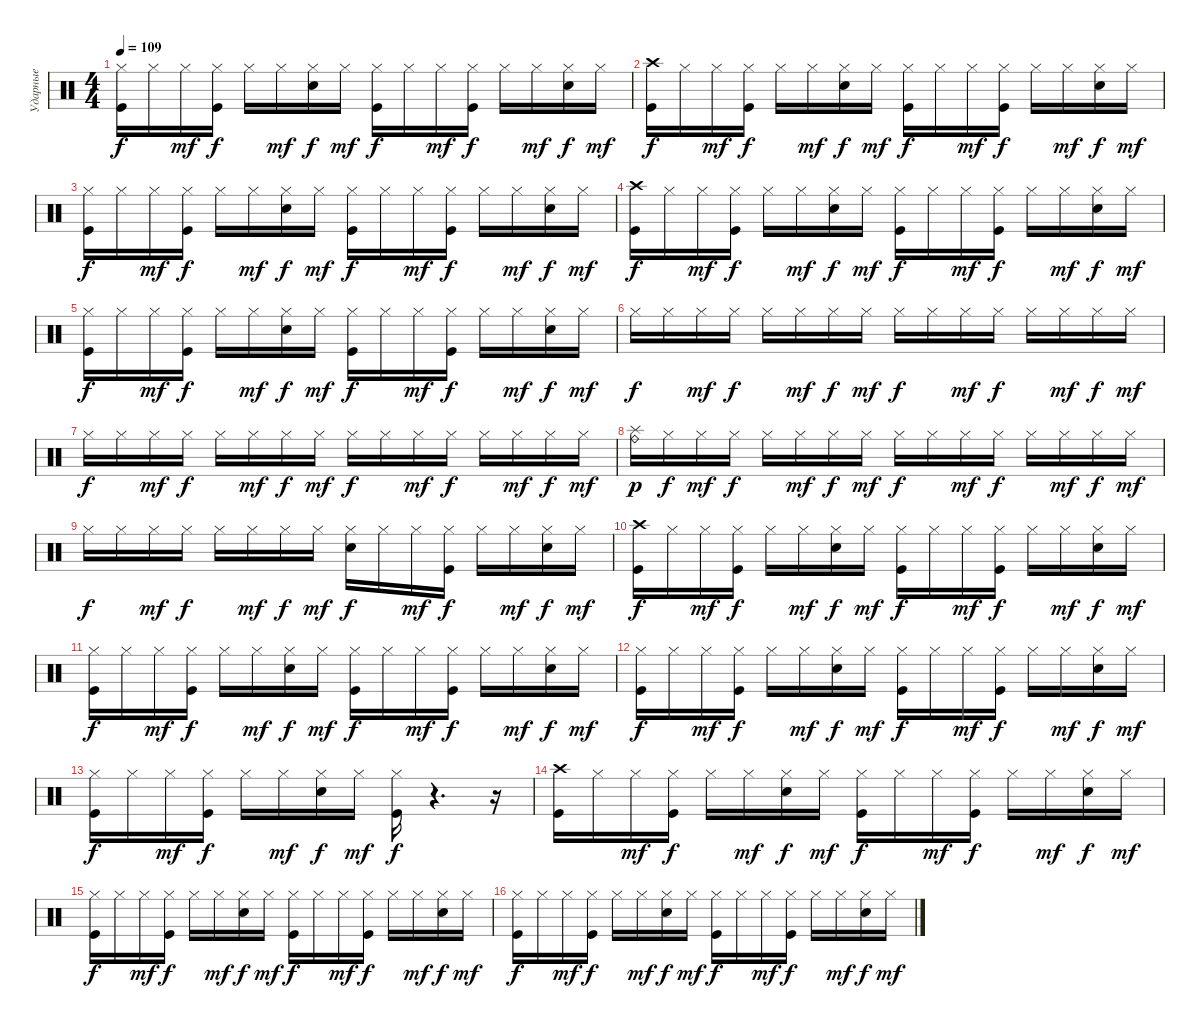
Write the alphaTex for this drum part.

\track ("Ударные" "Ударные") {instrument percussion}
\staff {score}
\articulation defaults
\ts (4 4)
\tempo 109
\clef neutral
\ks c
("Kick (hit)" "Hi-Hat (closed)").16{dy f} "Hi-Hat (closed)".16 "Hi-Hat (closed)".16{dy mf} ("Hi-Hat (closed)" "Kick (hit)").16{dy f} "Hi-Hat (closed)".16 "Hi-Hat (closed)".16{dy mf} ("Electric Snare (hit)" "Hi-Hat (closed)").16{dy f} "Hi-Hat (closed)".16{dy mf} ("Hi-Hat (closed)" "Kick (hit)").16{dy f} "Hi-Hat (closed)".16 "Hi-Hat (closed)".16{dy mf} ("Kick (hit)" "Hi-Hat (closed)").16{dy f} "Hi-Hat (closed)".16 "Hi-Hat (closed)".16{dy mf} ("Electric Snare (hit)" "Hi-Hat (closed)").16{dy f} "Hi-Hat (closed)".16{dy mf} |
("Crash high (hit)" "Kick (hit)").16{dy f} "Hi-Hat (closed)".16 "Hi-Hat (closed)".16{dy mf} ("Kick (hit)" "Hi-Hat (closed)").16{dy f} "Hi-Hat (closed)".16 "Hi-Hat (closed)".16{dy mf} ("Hi-Hat (closed)" "Electric Snare (hit)").16{dy f} "Hi-Hat (closed)".16{dy mf} ("Hi-Hat (closed)" "Kick (hit)").16{dy f} "Hi-Hat (closed)".16 "Hi-Hat (closed)".16{dy mf} ("Hi-Hat (closed)" "Kick (hit)").16{dy f} "Hi-Hat (closed)".16 "Hi-Hat (closed)".16{dy mf} ("Electric Snare (hit)" "Hi-Hat (closed)").16{dy f} "Hi-Hat (closed)".16{dy mf} |
("Hi-Hat (closed)" "Kick (hit)").16{dy f} "Hi-Hat (closed)".16 "Hi-Hat (closed)".16{dy mf} ("Kick (hit)" "Hi-Hat (closed)").16{dy f} "Hi-Hat (closed)".16 "Hi-Hat (closed)".16{dy mf} ("Electric Snare (hit)" "Hi-Hat (closed)").16{dy f} "Hi-Hat (closed)".16{dy mf} ("Kick (hit)" "Hi-Hat (closed)").16{dy f} "Hi-Hat (closed)".16 "Hi-Hat (closed)".16{dy mf} ("Hi-Hat (closed)" "Kick (hit)").16{dy f} "Hi-Hat (closed)".16 "Hi-Hat (closed)".16{dy mf} ("Electric Snare (hit)" "Hi-Hat (closed)").16{dy f} "Hi-Hat (closed)".16{dy mf} |
("Crash high (hit)" "Kick (hit)").16{dy f} "Hi-Hat (closed)".16 "Hi-Hat (closed)".16{dy mf} ("Hi-Hat (closed)" "Kick (hit)").16{dy f} "Hi-Hat (closed)".16 "Hi-Hat (closed)".16{dy mf} ("Electric Snare (hit)" "Hi-Hat (closed)").16{dy f} "Hi-Hat (closed)".16{dy mf} ("Kick (hit)" "Hi-Hat (closed)").16{dy f} "Hi-Hat (closed)".16 "Hi-Hat (closed)".16{dy mf} ("Hi-Hat (closed)" "Kick (hit)").16{dy f} "Hi-Hat (closed)".16 "Hi-Hat (closed)".16{dy mf} ("Electric Snare (hit)" "Hi-Hat (closed)").16{dy f} "Hi-Hat (closed)".16{dy mf} |
("Hi-Hat (closed)" "Kick (hit)").16{dy f} "Hi-Hat (closed)".16 "Hi-Hat (closed)".16{dy mf} ("Hi-Hat (closed)" "Kick (hit)").16{dy f} "Hi-Hat (closed)".16 "Hi-Hat (closed)".16{dy mf} ("Hi-Hat (closed)" "Electric Snare (hit)").16{dy f} "Hi-Hat (closed)".16{dy mf} ("Kick (hit)" "Hi-Hat (closed)").16{dy f} "Hi-Hat (closed)".16 "Hi-Hat (closed)".16{dy mf} ("Hi-Hat (closed)" "Kick (hit)").16{dy f} "Hi-Hat (closed)".16 "Hi-Hat (closed)".16{dy mf} ("Hi-Hat (closed)" "Electric Snare (hit)").16{dy f} "Hi-Hat (closed)".16{dy mf} |
"Hi-Hat (closed)".16{dy f} "Hi-Hat (closed)".16 "Hi-Hat (closed)".16{dy mf} "Hi-Hat (closed)".16{dy f} "Hi-Hat (closed)".16 "Hi-Hat (closed)".16{dy mf} "Hi-Hat (closed)".16{dy f} "Hi-Hat (closed)".16{dy mf} "Hi-Hat (closed)".16{dy f} "Hi-Hat (closed)".16 "Hi-Hat (closed)".16{dy mf} "Hi-Hat (closed)".16{dy f} "Hi-Hat (closed)".16 "Hi-Hat (closed)".16{dy mf} "Hi-Hat (closed)".16{dy f} "Hi-Hat (closed)".16{dy mf} |
"Hi-Hat (closed)".16{dy f} "Hi-Hat (closed)".16 "Hi-Hat (closed)".16{dy mf} "Hi-Hat (closed)".16{dy f} "Hi-Hat (closed)".16 "Hi-Hat (closed)".16{dy mf} "Hi-Hat (closed)".16{dy f} "Hi-Hat (closed)".16{dy mf} "Hi-Hat (closed)".16{dy f} "Hi-Hat (closed)".16 "Hi-Hat (closed)".16{dy mf} "Hi-Hat (closed)".16{dy f} "Hi-Hat (closed)".16 "Hi-Hat (closed)".16{dy mf} "Hi-Hat (closed)".16{dy f} "Hi-Hat (closed)".16{dy mf} |
("Ride (bell)" "Splash (hit)").16{dy p} "Hi-Hat (closed)".16{dy f} "Hi-Hat (closed)".16{dy mf} "Hi-Hat (closed)".16{dy f} "Hi-Hat (closed)".16 "Hi-Hat (closed)".16{dy mf} "Hi-Hat (closed)".16{dy f} "Hi-Hat (closed)".16{dy mf} "Hi-Hat (closed)".16{dy f} "Hi-Hat (closed)".16 "Hi-Hat (closed)".16{dy mf} "Hi-Hat (closed)".16{dy f} "Hi-Hat (closed)".16 "Hi-Hat (closed)".16{dy mf} "Hi-Hat (closed)".16{dy f} "Hi-Hat (closed)".16{dy mf} |
"Hi-Hat (closed)".16{dy f} "Hi-Hat (closed)".16 "Hi-Hat (closed)".16{dy mf} "Hi-Hat (closed)".16{dy f} "Hi-Hat (closed)".16 "Hi-Hat (closed)".16{dy mf} "Hi-Hat (closed)".16{dy f} "Hi-Hat (closed)".16{dy mf} ("Hi-Hat (closed)" "Electric Snare (hit)").16{dy f} "Hi-Hat (closed)".16 "Hi-Hat (closed)".16{dy mf} ("Kick (hit)" "Hi-Hat (closed)").16{dy f} "Hi-Hat (closed)".16 "Hi-Hat (closed)".16{dy mf} ("Hi-Hat (closed)" "Electric Snare (hit)").16{dy f} "Hi-Hat (closed)".16{dy mf} |
("Kick (hit)" "Crash high (hit)").16{dy f} "Hi-Hat (closed)".16 "Hi-Hat (closed)".16{dy mf} ("Hi-Hat (closed)" "Kick (hit)").16{dy f} "Hi-Hat (closed)".16 "Hi-Hat (closed)".16{dy mf} ("Electric Snare (hit)" "Hi-Hat (closed)").16{dy f} "Hi-Hat (closed)".16{dy mf} ("Hi-Hat (closed)" "Kick (hit)").16{dy f} "Hi-Hat (closed)".16 "Hi-Hat (closed)".16{dy mf} ("Hi-Hat (closed)" "Kick (hit)").16{dy f} "Hi-Hat (closed)".16 "Hi-Hat (closed)".16{dy mf} ("Electric Snare (hit)" "Hi-Hat (closed)").16{dy f} "Hi-Hat (closed)".16{dy mf} |
("Hi-Hat (closed)" "Kick (hit)").16{dy f} "Hi-Hat (closed)".16 "Hi-Hat (closed)".16{dy mf} ("Hi-Hat (closed)" "Kick (hit)").16{dy f} "Hi-Hat (closed)".16 "Hi-Hat (closed)".16{dy mf} ("Hi-Hat (closed)" "Electric Snare (hit)").16{dy f} "Hi-Hat (closed)".16{dy mf} ("Kick (hit)" "Hi-Hat (closed)").16{dy f} "Hi-Hat (closed)".16 "Hi-Hat (closed)".16{dy mf} ("Hi-Hat (closed)" "Kick (hit)").16{dy f} "Hi-Hat (closed)".16 "Hi-Hat (closed)".16{dy mf} ("Hi-Hat (closed)" "Electric Snare (hit)").16{dy f} "Hi-Hat (closed)".16{dy mf} |
("Kick (hit)" "Hi-Hat (closed)").16{dy f} "Hi-Hat (closed)".16 "Hi-Hat (closed)".16{dy mf} ("Hi-Hat (closed)" "Kick (hit)").16{dy f} "Hi-Hat (closed)".16 "Hi-Hat (closed)".16{dy mf} ("Electric Snare (hit)" "Hi-Hat (closed)").16{dy f} "Hi-Hat (closed)".16{dy mf} ("Hi-Hat (closed)" "Kick (hit)").16{dy f} "Hi-Hat (closed)".16 "Hi-Hat (closed)".16{dy mf} ("Hi-Hat (closed)" "Kick (hit)").16{dy f} "Hi-Hat (closed)".16 "Hi-Hat (closed)".16{dy mf} ("Electric Snare (hit)" "Hi-Hat (closed)").16{dy f} "Hi-Hat (closed)".16{dy mf} |
("Kick (hit)" "Hi-Hat (closed)").16{dy f} "Hi-Hat (closed)".16 "Hi-Hat (closed)".16{dy mf} ("Kick (hit)" "Hi-Hat (closed)").16{dy f} "Hi-Hat (closed)".16 "Hi-Hat (closed)".16{dy mf} ("Hi-Hat (closed)" "Electric Snare (hit)").16{dy f} "Hi-Hat (closed)".16{dy mf} ("Hi-Hat (closed)" "Kick (hit)").16{dy f} r.4{d} r.16 |
("Kick (hit)" "Crash high (hit)").16 "Hi-Hat (closed)".16 "Hi-Hat (closed)".16{dy mf} ("Kick (hit)" "Hi-Hat (closed)").16{dy f} "Hi-Hat (closed)".16 "Hi-Hat (closed)".16{dy mf} ("Electric Snare (hit)" "Hi-Hat (closed)").16{dy f} "Hi-Hat (closed)".16{dy mf} ("Hi-Hat (closed)" "Kick (hit)").16{dy f} "Hi-Hat (closed)".16 "Hi-Hat (closed)".16{dy mf} ("Kick (hit)" "Hi-Hat (closed)").16{dy f} "Hi-Hat (closed)".16 "Hi-Hat (closed)".16{dy mf} ("Electric Snare (hit)" "Hi-Hat (closed)").16{dy f} "Hi-Hat (closed)".16{dy mf} |
("Hi-Hat (closed)" "Kick (hit)").16{dy f} "Hi-Hat (closed)".16 "Hi-Hat (closed)".16{dy mf} ("Hi-Hat (closed)" "Kick (hit)").16{dy f} "Hi-Hat (closed)".16 "Hi-Hat (closed)".16{dy mf} ("Hi-Hat (closed)" "Electric Snare (hit)").16{dy f} "Hi-Hat (closed)".16{dy mf} ("Hi-Hat (closed)" "Kick (hit)").16{dy f} "Hi-Hat (closed)".16 "Hi-Hat (closed)".16{dy mf} ("Hi-Hat (closed)" "Kick (hit)").16{dy f} "Hi-Hat (closed)".16 "Hi-Hat (closed)".16{dy mf} ("Electric Snare (hit)" "Hi-Hat (closed)").16{dy f} "Hi-Hat (closed)".16{dy mf} |
("Hi-Hat (closed)" "Kick (hit)").16{dy f} "Hi-Hat (closed)".16 "Hi-Hat (closed)".16{dy mf} ("Kick (hit)" "Hi-Hat (closed)").16{dy f} "Hi-Hat (closed)".16 "Hi-Hat (closed)".16{dy mf} ("Electric Snare (hit)" "Hi-Hat (closed)").16{dy f} "Hi-Hat (closed)".16{dy mf} ("Kick (hit)" "Hi-Hat (closed)").16{dy f} "Hi-Hat (closed)".16 "Hi-Hat (closed)".16{dy mf} ("Hi-Hat (closed)" "Kick (hit)").16{dy f} "Hi-Hat (closed)".16 "Hi-Hat (closed)".16{dy mf} ("Hi-Hat (closed)" "Electric Snare (hit)").16{dy f} "Hi-Hat (closed)".16{dy mf}
